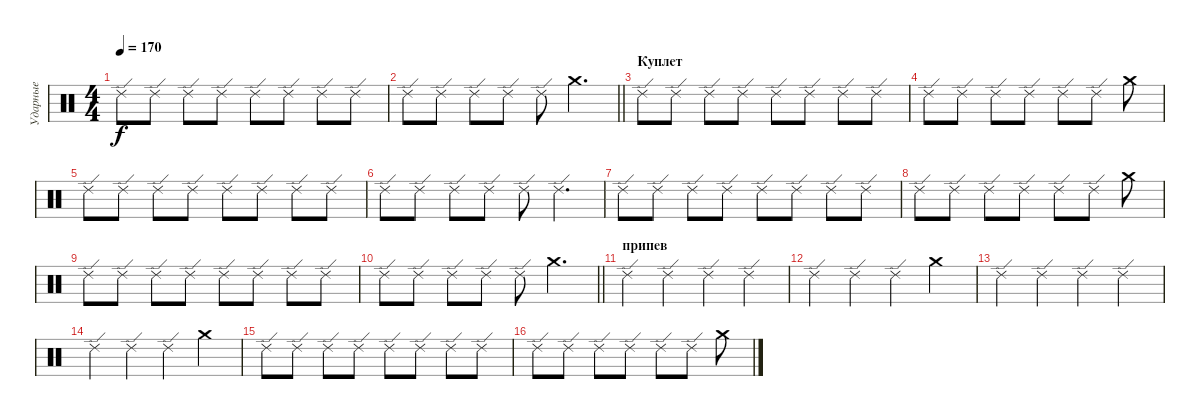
\track ("Ударные" "Ударные") {instrument percussion}
\staff {score}
\articulation defaults
\ts (4 4)
\tempo 170
\clef neutral
\ks c "Ride (edge) 2".8{dy f} "Ride (edge) 2".8 "Ride (edge) 2".8 "Ride (edge) 2".8 "Ride (edge) 2".8 "Ride (edge) 2".8 "Ride (edge) 2".8 "Ride (edge) 2".8
|
\barLineRight lightlight "Ride (edge) 2".8 "Ride (edge) 2".8 "Ride (edge) 2".8 "Ride (edge) 2".8 "Ride (edge) 2".8 "Crash medium (hit)".4{d}
|
\section ("" "Куплет")
"Ride (edge) 2".8 "Ride (edge) 2".8 "Ride (edge) 2".8 "Ride (edge) 2".8 "Ride (edge) 2".8 "Ride (edge) 2".8 "Ride (edge) 2".8 "Ride (edge) 2".8 |
"Ride (edge) 2".8 "Ride (edge) 2".8 "Ride (edge) 2".8 "Ride (edge) 2".8 "Ride (edge) 2".8 "Ride (edge) 2".8 "Crash medium (hit)".8 |
"Ride (edge) 2".8 "Ride (edge) 2".8 "Ride (edge) 2".8 "Ride (edge) 2".8 "Ride (edge) 2".8 "Ride (edge) 2".8 "Ride (edge) 2".8 "Ride (edge) 2".8 |
"Ride (edge) 2".8 "Ride (edge) 2".8 "Ride (edge) 2".8 "Ride (edge) 2".8 "Ride (edge) 2".8 "Ride (edge) 2".4{d} |
"Ride (edge) 2".8 "Ride (edge) 2".8 "Ride (edge) 2".8 "Ride (edge) 2".8 "Ride (edge) 2".8 "Ride (edge) 2".8 "Ride (edge) 2".8 "Ride (edge) 2".8 |
"Ride (edge) 2".8 "Ride (edge) 2".8 "Ride (edge) 2".8 "Ride (edge) 2".8 "Ride (edge) 2".8 "Ride (edge) 2".8 "Crash medium (hit)".8 |
"Ride (edge) 2".8 "Ride (edge) 2".8 "Ride (edge) 2".8 "Ride (edge) 2".8 "Ride (edge) 2".8 "Ride (edge) 2".8 "Ride (edge) 2".8 "Ride (edge) 2".8 |
\barLineRight lightlight "Ride (edge) 2".8 "Ride (edge) 2".8 "Ride (edge) 2".8 "Ride (edge) 2".8 "Ride (edge) 2".8 "Crash medium (hit)".4{d}
|
\section ("" "припев")
"Ride (edge) 2".4 "Ride (edge) 2".4 "Ride (edge) 2".4 "Ride (edge) 2".4 |
"Ride (edge) 2".4 "Ride (edge) 2".4 "Ride (edge) 2".4 "Crash medium (hit)".4 |
"Ride (edge) 2".4 "Ride (edge) 2".4 "Ride (edge) 2".4 "Ride (edge) 2".4 |
"Ride (edge) 2".4 "Ride (edge) 2".4 "Ride (edge) 2".4 "Crash medium (hit)".4 |
"Ride (edge) 2".8 "Ride (edge) 2".8 "Ride (edge) 2".8 "Ride (edge) 2".8 "Ride (edge) 2".8 "Ride (edge) 2".8 "Ride (edge) 2".8 "Ride (edge) 2".8 |
"Ride (edge) 2".8 "Ride (edge) 2".8 "Ride (edge) 2".8 "Ride (edge) 2".8 "Ride (edge) 2".8 "Ride (edge) 2".8 "Crash medium (hit)".8
